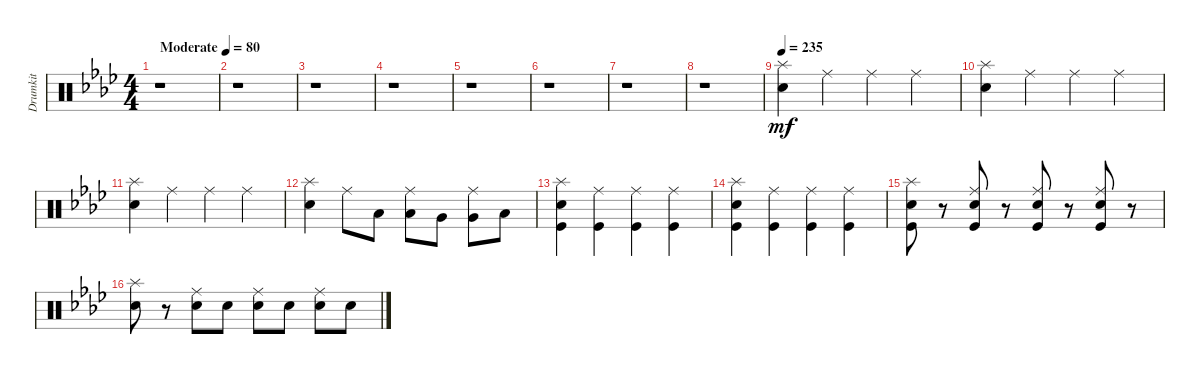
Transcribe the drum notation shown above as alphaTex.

\track ("Drumkit" "Drumkit") {instrument percussion}
\staff {score}
\articulation defaults
\ts (4 4)
\tempo (80 "Moderate")
\clef neutral
\ks ab
r.1{dy mf} |
r.1 |
r.1 |
r.1 |
r.1 |
r.1 |
r.1 |
r.1 |
\tempo 235
("Splash (hit)" "Electric Snare (hit)").4 "Ride (middle)".4 "Ride (middle)".4 "Ride (middle)".4 |
("Splash (hit)" "Electric Snare (hit)").4 "Ride (middle)".4 "Ride (middle)".4 "Ride (middle)".4 |
("Splash (hit)" "Electric Snare (hit)").4 "Ride (middle)".4 "Ride (middle)".4 "Ride (middle)".4 |
("Splash (hit)" "Electric Snare (hit)").4 "Ride (middle)".8 "Low Tom (hit)".8 ("Ride (middle)" "Low Tom (hit)").8 "Very Low Tom (hit)".8 ("Ride (middle)" "Very Low Tom (hit)").8 "Low Floor Tom (hit)".8 |
("Splash (hit)" "Electric Snare (hit)" "Kick (hit)").4 ("Ride (middle)" "Kick (hit)").4 ("Ride (middle)" "Kick (hit)").4 ("Ride (middle)" "Kick (hit)").4 |
("Splash (hit)" "Electric Snare (hit)" "Kick (hit)").4 ("Ride (middle)" "Kick (hit)").4 ("Ride (middle)" "Kick (hit)").4 ("Ride (middle)" "Kick (hit)").4 |
("Splash (hit)" "Electric Snare (hit)" "Kick (hit)").8 r.8 ("Ride (middle)" "Electric Snare (hit)" "Kick (hit)").8 r.8 ("Ride (middle)" "Electric Snare (hit)" "Kick (hit)").8 r.8 ("Ride (middle)" "Electric Snare (hit)" "Kick (hit)").8 r.8 |
("Splash (hit)" "Electric Snare (hit)").8 r.8 ("Ride (middle)" "Electric Snare (hit)").8 "Electric Snare (hit)".8 ("Ride (middle)" "Electric Snare (hit)").8 "Electric Snare (hit)".8 ("Ride (middle)" "Electric Snare (hit)").8 "Electric Snare (hit)".8
